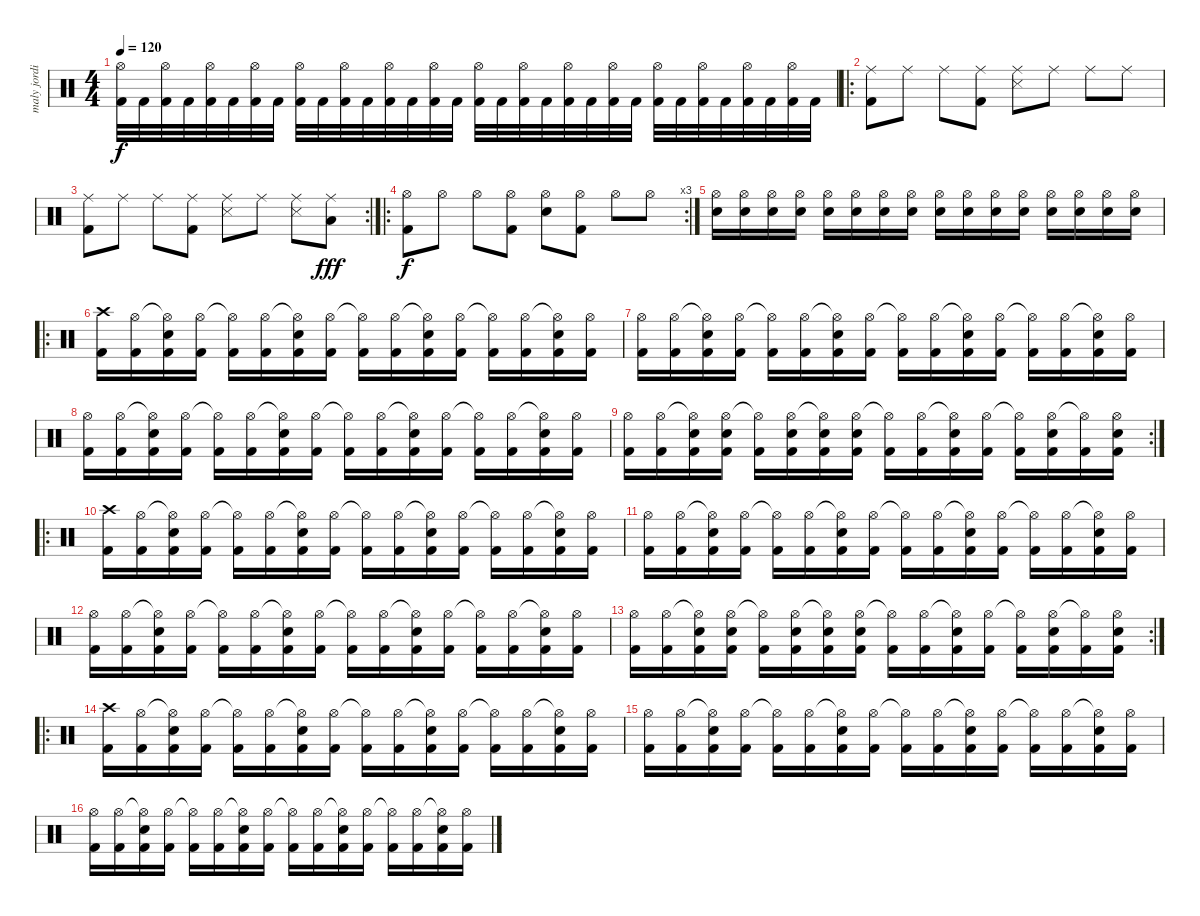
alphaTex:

\track ("maly jordison - Battery" "maly jordi") {instrument percussion}
\staff {score}
\articulation defaults
\ts (4 4)
\tempo 120
\clef neutral
\ks c
("Hi-Hat (open)" "Kick (hit) 2").32{dy f} "Kick (hit) 2".32 ("Hi-Hat (open)" "Kick (hit) 2").32 "Kick (hit) 2".32 ("Hi-Hat (open)" "Kick (hit) 2").32 "Kick (hit) 2".32 ("Hi-Hat (open)" "Kick (hit) 2").32 "Kick (hit) 2".32 ("Hi-Hat (open)" "Kick (hit) 2").32 "Kick (hit) 2".32 ("Hi-Hat (open)" "Kick (hit) 2").32 "Kick (hit) 2".32 ("Hi-Hat (open)" "Kick (hit) 2").32 "Kick (hit) 2".32 ("Hi-Hat (open)" "Kick (hit) 2").32 "Kick (hit) 2".32 ("Hi-Hat (open)" "Kick (hit) 2").32 "Kick (hit) 2".32 ("Hi-Hat (open)" "Kick (hit) 2").32 "Kick (hit) 2".32 ("Hi-Hat (open)" "Kick (hit) 2").32 "Kick (hit) 2".32 ("Hi-Hat (open)" "Kick (hit) 2").32 "Kick (hit) 2".32 ("Hi-Hat (open)" "Kick (hit) 2").32 "Kick (hit) 2".32 ("Hi-Hat (open)" "Kick (hit) 2").32 "Kick (hit) 2".32 ("Hi-Hat (open)" "Kick (hit) 2").32 "Kick (hit) 2".32 ("Hi-Hat (open)" "Kick (hit) 2").32 "Kick (hit) 2".32 |
\ro
("Kick (hit) 2" "Ride (middle)").8 "Ride (middle)".8 "Ride (middle)".8 ("Kick (hit) 2" "Ride (middle)").8 ("Snare (side stick) 3" "Ride (middle)").8 "Ride (middle)".8 "Ride (middle)".8 "Ride (middle)".8 |
\rc 2
("Kick (hit) 2" "Ride (middle)").8 "Ride (middle)".8 "Ride (middle)".8 ("Kick (hit) 2" "Ride (middle)").8 ("Snare (side stick) 3" "Ride (middle)").8 "Ride (middle)".8 ("Snare (side stick) 3" "Ride (middle)").8 ("Low Floor Tom (hit)" "Ride (middle)").8{dy fff} |
\ro
\rc 3
("Kick (hit) 2" "Hi-Hat (open)").8{dy f} "Hi-Hat (open)".8 "Hi-Hat (open)".8 ("Kick (hit) 2" "Hi-Hat (open)").8 ("Electric Snare (hit)" "Hi-Hat (open)").8 ("Kick (hit) 2" "Hi-Hat (open)").8 "Hi-Hat (open)".8 "Hi-Hat (open)".8 |
("Hi-Hat (open)" "Electric Snare (hit)").16 ("Hi-Hat (open)" "Electric Snare (hit)").16 ("Hi-Hat (open)" "Electric Snare (hit)").16 ("Hi-Hat (open)" "Electric Snare (hit)").16 ("Hi-Hat (open)" "Electric Snare (hit)").16 ("Hi-Hat (open)" "Electric Snare (hit)").16 ("Hi-Hat (open)" "Electric Snare (hit)").16 ("Hi-Hat (open)" "Electric Snare (hit)").16 ("Hi-Hat (open)" "Electric Snare (hit)").16 ("Hi-Hat (open)" "Electric Snare (hit)").16 ("Hi-Hat (open)" "Electric Snare (hit)").16 ("Hi-Hat (open)" "Electric Snare (hit)").16 ("Hi-Hat (open)" "Electric Snare (hit)").16 ("Hi-Hat (open)" "Electric Snare (hit)").16 ("Hi-Hat (open)" "Electric Snare (hit)").16 ("Hi-Hat (open)" "Electric Snare (hit)").16 |
\ro
("Crash high (hit)" "Kick (hit) 2").16 ("Hi-Hat (open)" "Kick (hit) 2").16 ("Hi-Hat (open)"{t} "Electric Snare (hit)" "Kick (hit) 2").16 ("Hi-Hat (open)" "Kick (hit) 2").16 ("Hi-Hat (open)"{t} "Kick (hit) 2").16 ("Hi-Hat (open)" "Kick (hit) 2").16 ("Hi-Hat (open)"{t} "Electric Snare (hit)" "Kick (hit) 2").16 ("Hi-Hat (open)" "Kick (hit) 2").16 ("Hi-Hat (open)"{t} "Kick (hit) 2").16 ("Hi-Hat (open)" "Kick (hit) 2").16 ("Hi-Hat (open)"{t} "Electric Snare (hit)" "Kick (hit) 2").16 ("Hi-Hat (open)" "Kick (hit) 2").16 ("Hi-Hat (open)"{t} "Kick (hit) 2").16 ("Hi-Hat (open)" "Kick (hit) 2").16 ("Hi-Hat (open)"{t} "Electric Snare (hit)" "Kick (hit) 2").16 ("Hi-Hat (open)" "Kick (hit) 2").16 |
("Hi-Hat (open)" "Kick (hit) 2").16 ("Hi-Hat (open)" "Kick (hit) 2").16 ("Hi-Hat (open)"{t} "Electric Snare (hit)" "Kick (hit) 2").16 ("Hi-Hat (open)" "Kick (hit) 2").16 ("Hi-Hat (open)"{t} "Kick (hit) 2").16 ("Hi-Hat (open)" "Kick (hit) 2").16 ("Hi-Hat (open)"{t} "Electric Snare (hit)" "Kick (hit) 2").16 ("Hi-Hat (open)" "Kick (hit) 2").16 ("Hi-Hat (open)"{t} "Kick (hit) 2").16 ("Hi-Hat (open)" "Kick (hit) 2").16 ("Hi-Hat (open)"{t} "Electric Snare (hit)" "Kick (hit) 2").16 ("Hi-Hat (open)" "Kick (hit) 2").16 ("Hi-Hat (open)"{t} "Kick (hit) 2").16 ("Hi-Hat (open)" "Kick (hit) 2").16 ("Hi-Hat (open)"{t} "Electric Snare (hit)" "Kick (hit) 2").16 ("Hi-Hat (open)" "Kick (hit) 2").16 |
("Hi-Hat (open)" "Kick (hit) 2").16 ("Hi-Hat (open)" "Kick (hit) 2").16 ("Hi-Hat (open)"{t} "Electric Snare (hit)" "Kick (hit) 2").16 ("Hi-Hat (open)" "Kick (hit) 2").16 ("Hi-Hat (open)"{t} "Kick (hit) 2").16 ("Hi-Hat (open)" "Kick (hit) 2").16 ("Hi-Hat (open)"{t} "Electric Snare (hit)" "Kick (hit) 2").16 ("Hi-Hat (open)" "Kick (hit) 2").16 ("Hi-Hat (open)"{t} "Kick (hit) 2").16 ("Hi-Hat (open)" "Kick (hit) 2").16 ("Hi-Hat (open)"{t} "Electric Snare (hit)" "Kick (hit) 2").16 ("Hi-Hat (open)" "Kick (hit) 2").16 ("Hi-Hat (open)"{t} "Kick (hit) 2").16 ("Hi-Hat (open)" "Kick (hit) 2").16 ("Hi-Hat (open)"{t} "Electric Snare (hit)" "Kick (hit) 2").16 ("Hi-Hat (open)" "Kick (hit) 2").16 |
\rc 2
("Hi-Hat (open)" "Kick (hit) 2").16 ("Hi-Hat (open)" "Kick (hit) 2").16 ("Hi-Hat (open)"{t} "Electric Snare (hit)" "Kick (hit) 2").16 ("Hi-Hat (open)" "Electric Snare (hit)" "Kick (hit) 2").16 ("Hi-Hat (open)"{t} "Kick (hit) 2").16 ("Hi-Hat (open)" "Electric Snare (hit)" "Kick (hit) 2").16 ("Hi-Hat (open)"{t} "Electric Snare (hit)" "Kick (hit) 2").16 ("Hi-Hat (open)" "Electric Snare (hit)" "Kick (hit) 2").16 ("Hi-Hat (open)"{t} "Kick (hit) 2").16 ("Hi-Hat (open)" "Kick (hit) 2").16 ("Hi-Hat (open)"{t} "Electric Snare (hit)" "Kick (hit) 2").16 ("Hi-Hat (open)" "Kick (hit) 2").16 ("Hi-Hat (open)"{t} "Kick (hit) 2").16 ("Hi-Hat (open)" "Electric Snare (hit)" "Kick (hit) 2").16 ("Hi-Hat (open)"{t} "Kick (hit) 2").16 ("Hi-Hat (open)" "Electric Snare (hit)" "Kick (hit) 2").16 |
\ro
("Crash high (hit)" "Kick (hit) 2").16 ("Hi-Hat (open)" "Kick (hit) 2").16 ("Hi-Hat (open)"{t} "Electric Snare (hit)" "Kick (hit) 2").16 ("Hi-Hat (open)" "Kick (hit) 2").16 ("Hi-Hat (open)"{t} "Kick (hit) 2").16 ("Hi-Hat (open)" "Kick (hit) 2").16 ("Hi-Hat (open)"{t} "Electric Snare (hit)" "Kick (hit) 2").16 ("Hi-Hat (open)" "Kick (hit) 2").16 ("Hi-Hat (open)"{t} "Kick (hit) 2").16 ("Hi-Hat (open)" "Kick (hit) 2").16 ("Hi-Hat (open)"{t} "Electric Snare (hit)" "Kick (hit) 2").16 ("Hi-Hat (open)" "Kick (hit) 2").16 ("Hi-Hat (open)"{t} "Kick (hit) 2").16 ("Hi-Hat (open)" "Kick (hit) 2").16 ("Hi-Hat (open)"{t} "Electric Snare (hit)" "Kick (hit) 2").16 ("Hi-Hat (open)" "Kick (hit) 2").16 |
("Hi-Hat (open)" "Kick (hit) 2").16 ("Hi-Hat (open)" "Kick (hit) 2").16 ("Hi-Hat (open)"{t} "Electric Snare (hit)" "Kick (hit) 2").16 ("Hi-Hat (open)" "Kick (hit) 2").16 ("Hi-Hat (open)"{t} "Kick (hit) 2").16 ("Hi-Hat (open)" "Kick (hit) 2").16 ("Hi-Hat (open)"{t} "Electric Snare (hit)" "Kick (hit) 2").16 ("Hi-Hat (open)" "Kick (hit) 2").16 ("Hi-Hat (open)"{t} "Kick (hit) 2").16 ("Hi-Hat (open)" "Kick (hit) 2").16 ("Hi-Hat (open)"{t} "Electric Snare (hit)" "Kick (hit) 2").16 ("Hi-Hat (open)" "Kick (hit) 2").16 ("Hi-Hat (open)"{t} "Kick (hit) 2").16 ("Hi-Hat (open)" "Kick (hit) 2").16 ("Hi-Hat (open)"{t} "Electric Snare (hit)" "Kick (hit) 2").16 ("Hi-Hat (open)" "Kick (hit) 2").16 |
("Hi-Hat (open)" "Kick (hit) 2").16 ("Hi-Hat (open)" "Kick (hit) 2").16 ("Hi-Hat (open)"{t} "Electric Snare (hit)" "Kick (hit) 2").16 ("Hi-Hat (open)" "Kick (hit) 2").16 ("Hi-Hat (open)"{t} "Kick (hit) 2").16 ("Hi-Hat (open)" "Kick (hit) 2").16 ("Hi-Hat (open)"{t} "Electric Snare (hit)" "Kick (hit) 2").16 ("Hi-Hat (open)" "Kick (hit) 2").16 ("Hi-Hat (open)"{t} "Kick (hit) 2").16 ("Hi-Hat (open)" "Kick (hit) 2").16 ("Hi-Hat (open)"{t} "Electric Snare (hit)" "Kick (hit) 2").16 ("Hi-Hat (open)" "Kick (hit) 2").16 ("Hi-Hat (open)"{t} "Kick (hit) 2").16 ("Hi-Hat (open)" "Kick (hit) 2").16 ("Hi-Hat (open)"{t} "Electric Snare (hit)" "Kick (hit) 2").16 ("Hi-Hat (open)" "Kick (hit) 2").16 |
\rc 2
("Hi-Hat (open)" "Kick (hit) 2").16 ("Hi-Hat (open)" "Kick (hit) 2").16 ("Hi-Hat (open)"{t} "Electric Snare (hit)" "Kick (hit) 2").16 ("Hi-Hat (open)" "Electric Snare (hit)" "Kick (hit) 2").16 ("Hi-Hat (open)"{t} "Kick (hit) 2").16 ("Hi-Hat (open)" "Electric Snare (hit)" "Kick (hit) 2").16 ("Hi-Hat (open)"{t} "Electric Snare (hit)" "Kick (hit) 2").16 ("Hi-Hat (open)" "Electric Snare (hit)" "Kick (hit) 2").16 ("Hi-Hat (open)"{t} "Kick (hit) 2").16 ("Hi-Hat (open)" "Kick (hit) 2").16 ("Hi-Hat (open)"{t} "Electric Snare (hit)" "Kick (hit) 2").16 ("Hi-Hat (open)" "Kick (hit) 2").16 ("Hi-Hat (open)"{t} "Kick (hit) 2").16 ("Hi-Hat (open)" "Electric Snare (hit)" "Kick (hit) 2").16 ("Hi-Hat (open)"{t} "Kick (hit) 2").16 ("Hi-Hat (open)" "Electric Snare (hit)" "Kick (hit) 2").16 |
\ro
("Crash high (hit)" "Kick (hit) 2").16 ("Hi-Hat (open)" "Kick (hit) 2").16 ("Hi-Hat (open)"{t} "Electric Snare (hit)" "Kick (hit) 2").16 ("Hi-Hat (open)" "Kick (hit) 2").16 ("Hi-Hat (open)"{t} "Kick (hit) 2").16 ("Hi-Hat (open)" "Kick (hit) 2").16 ("Hi-Hat (open)"{t} "Electric Snare (hit)" "Kick (hit) 2").16 ("Hi-Hat (open)" "Kick (hit) 2").16 ("Hi-Hat (open)"{t} "Kick (hit) 2").16 ("Hi-Hat (open)" "Kick (hit) 2").16 ("Hi-Hat (open)"{t} "Electric Snare (hit)" "Kick (hit) 2").16 ("Hi-Hat (open)" "Kick (hit) 2").16 ("Hi-Hat (open)"{t} "Kick (hit) 2").16 ("Hi-Hat (open)" "Kick (hit) 2").16 ("Hi-Hat (open)"{t} "Electric Snare (hit)" "Kick (hit) 2").16 ("Hi-Hat (open)" "Kick (hit) 2").16 |
("Hi-Hat (open)" "Kick (hit) 2").16 ("Hi-Hat (open)" "Kick (hit) 2").16 ("Hi-Hat (open)"{t} "Electric Snare (hit)" "Kick (hit) 2").16 ("Hi-Hat (open)" "Kick (hit) 2").16 ("Hi-Hat (open)"{t} "Kick (hit) 2").16 ("Hi-Hat (open)" "Kick (hit) 2").16 ("Hi-Hat (open)"{t} "Electric Snare (hit)" "Kick (hit) 2").16 ("Hi-Hat (open)" "Kick (hit) 2").16 ("Hi-Hat (open)"{t} "Kick (hit) 2").16 ("Hi-Hat (open)" "Kick (hit) 2").16 ("Hi-Hat (open)"{t} "Electric Snare (hit)" "Kick (hit) 2").16 ("Hi-Hat (open)" "Kick (hit) 2").16 ("Hi-Hat (open)"{t} "Kick (hit) 2").16 ("Hi-Hat (open)" "Kick (hit) 2").16 ("Hi-Hat (open)"{t} "Electric Snare (hit)" "Kick (hit) 2").16 ("Hi-Hat (open)" "Kick (hit) 2").16 |
("Hi-Hat (open)" "Kick (hit) 2").16 ("Hi-Hat (open)" "Kick (hit) 2").16 ("Hi-Hat (open)"{t} "Electric Snare (hit)" "Kick (hit) 2").16 ("Hi-Hat (open)" "Kick (hit) 2").16 ("Hi-Hat (open)"{t} "Kick (hit) 2").16 ("Hi-Hat (open)" "Kick (hit) 2").16 ("Hi-Hat (open)"{t} "Electric Snare (hit)" "Kick (hit) 2").16 ("Hi-Hat (open)" "Kick (hit) 2").16 ("Hi-Hat (open)"{t} "Kick (hit) 2").16 ("Hi-Hat (open)" "Kick (hit) 2").16 ("Hi-Hat (open)"{t} "Electric Snare (hit)" "Kick (hit) 2").16 ("Hi-Hat (open)" "Kick (hit) 2").16 ("Hi-Hat (open)"{t} "Kick (hit) 2").16 ("Hi-Hat (open)" "Kick (hit) 2").16 ("Hi-Hat (open)"{t} "Electric Snare (hit)" "Kick (hit) 2").16 ("Hi-Hat (open)" "Kick (hit) 2").16
